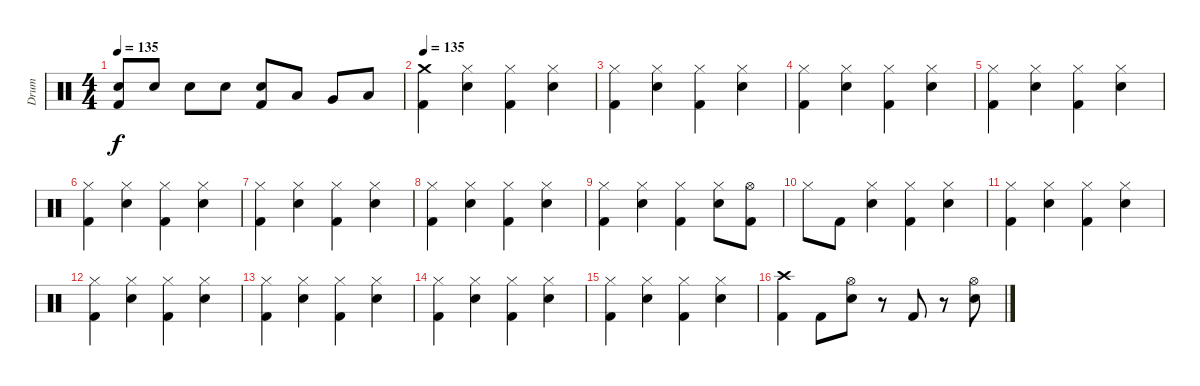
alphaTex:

\track ("Drum" "Drum") {instrument percussion}
\staff {score}
\articulation defaults
\ts (4 4)
\tempo 135
\clef neutral
\ks c
("Electric Snare (hit)" "Kick (hit) 2").8{dy f} "Electric Snare (hit)".8 "Electric Snare (hit)".8 "Electric Snare (hit)".8 ("Electric Snare (hit)" "Kick (hit) 2").8 "Low Tom (hit)".8 "Very Low Tom (hit)".8 "Low Floor Tom (hit)".8 |
\tempo 135
("Kick (hit) 2" "Crash medium (hit)").4 ("Hi-Hat (closed)" "Electric Snare (hit)").4 ("Hi-Hat (closed)" "Kick (hit) 2").4 ("Hi-Hat (closed)" "Electric Snare (hit)").4 |
("Hi-Hat (closed)" "Kick (hit) 2").4 ("Hi-Hat (closed)" "Electric Snare (hit)").4 ("Kick (hit) 2" "Hi-Hat (closed)").4 ("Electric Snare (hit)" "Hi-Hat (closed)").4 |
("Hi-Hat (closed)" "Kick (hit) 2").4 ("Hi-Hat (closed)" "Electric Snare (hit)").4 ("Hi-Hat (closed)" "Kick (hit) 2").4 ("Hi-Hat (closed)" "Electric Snare (hit)").4 |
("Hi-Hat (closed)" "Kick (hit) 2").4 ("Hi-Hat (closed)" "Electric Snare (hit)").4 ("Kick (hit) 2" "Hi-Hat (closed)").4 ("Electric Snare (hit)" "Hi-Hat (closed)").4 |
("Hi-Hat (closed)" "Kick (hit) 2").4 ("Hi-Hat (closed)" "Electric Snare (hit)").4 ("Hi-Hat (closed)" "Kick (hit) 2").4 ("Hi-Hat (closed)" "Electric Snare (hit)").4 |
("Hi-Hat (closed)" "Kick (hit) 2").4 ("Hi-Hat (closed)" "Electric Snare (hit)").4 ("Kick (hit) 2" "Hi-Hat (closed)").4 ("Electric Snare (hit)" "Hi-Hat (closed)").4 |
("Hi-Hat (closed)" "Kick (hit) 2").4 ("Hi-Hat (closed)" "Electric Snare (hit)").4 ("Hi-Hat (closed)" "Kick (hit) 2").4 ("Hi-Hat (closed)" "Electric Snare (hit)").4 |
("Hi-Hat (closed)" "Kick (hit) 2").4 ("Hi-Hat (closed)" "Electric Snare (hit)").4 ("Kick (hit) 2" "Hi-Hat (closed)").4 ("Electric Snare (hit)" "Hi-Hat (closed)").8 ("Kick (hit) 2" "Hi-Hat (open)").8 |
"Hi-Hat (closed)".8 "Kick (hit) 2".8 ("Hi-Hat (closed)" "Electric Snare (hit)").4 ("Hi-Hat (closed)" "Kick (hit) 2").4 ("Hi-Hat (closed)" "Electric Snare (hit)").4 |
("Hi-Hat (closed)" "Kick (hit) 2").4 ("Hi-Hat (closed)" "Electric Snare (hit)").4 ("Kick (hit) 2" "Hi-Hat (closed)").4 ("Electric Snare (hit)" "Hi-Hat (closed)").4 |
("Hi-Hat (closed)" "Kick (hit) 2").4 ("Hi-Hat (closed)" "Electric Snare (hit)").4 ("Hi-Hat (closed)" "Kick (hit) 2").4 ("Hi-Hat (closed)" "Electric Snare (hit)").4 |
("Hi-Hat (closed)" "Kick (hit) 2").4 ("Hi-Hat (closed)" "Electric Snare (hit)").4 ("Kick (hit) 2" "Hi-Hat (closed)").4 ("Electric Snare (hit)" "Hi-Hat (closed)").4 |
("Hi-Hat (closed)" "Kick (hit) 2").4 ("Hi-Hat (closed)" "Electric Snare (hit)").4 ("Hi-Hat (closed)" "Kick (hit) 2").4 ("Hi-Hat (closed)" "Electric Snare (hit)").4 |
("Hi-Hat (closed)" "Kick (hit) 2").4 ("Hi-Hat (closed)" "Electric Snare (hit)").4 ("Kick (hit) 2" "Hi-Hat (closed)").4 ("Electric Snare (hit)" "Hi-Hat (closed)").4 |
("Kick (hit) 2" "Crash high (hit)").4 "Kick (hit) 2".8 ("Hi-Hat (open)" "Electric Snare (hit)").8 r.8 "Kick (hit) 2".8 r.8 ("Hi-Hat (open)" "Electric Snare (hit)").8
